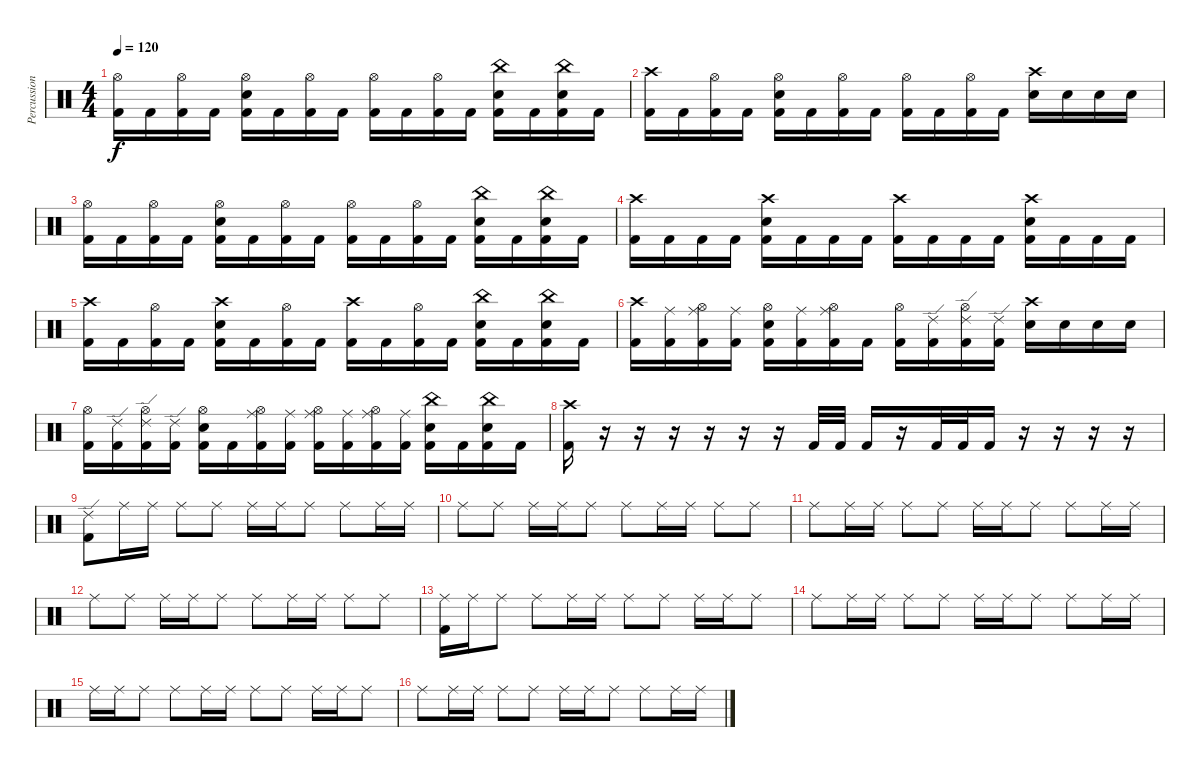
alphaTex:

\track ("Percussion" "Percussion") {instrument percussion}
\staff {score}
\articulation defaults
\ts (4 4)
\tempo 120
\clef neutral
\ks c
("Hi-Hat (open)" "Kick (hit) 2").16{dy f} "Kick (hit) 2".16 ("Hi-Hat (open)" "Kick (hit) 2").16 "Kick (hit) 2".16 ("Hi-Hat (open)" "Snare (hit) 2" "Kick (hit) 2").16 "Kick (hit) 2".16 ("Hi-Hat (open)" "Kick (hit) 2").16 "Kick (hit) 2".16 ("Hi-Hat (open)" "Kick (hit) 2").16 "Kick (hit) 2".16 ("Hi-Hat (open)" "Kick (hit) 2").16 "Kick (hit) 2".16 ("China (hit)" "Snare (hit) 2" "Kick (hit) 2").16 "Kick (hit) 2".16 ("China (hit)" "Snare (hit) 2" "Kick (hit) 2").16 "Kick (hit) 2".16 |
("Crash high (hit)" "Kick (hit) 2").16 "Kick (hit) 2".16 ("Hi-Hat (open)" "Kick (hit) 2").16 "Kick (hit) 2".16 ("Hi-Hat (open)" "Snare (hit) 2" "Kick (hit) 2").16 "Kick (hit) 2".16 ("Hi-Hat (open)" "Kick (hit) 2").16 "Kick (hit) 2".16 ("Hi-Hat (open)" "Kick (hit) 2").16 "Kick (hit) 2".16 ("Hi-Hat (open)" "Kick (hit) 2").16 "Kick (hit) 2".16 ("Crash high (hit)" "Snare (hit) 2").16 "Snare (hit) 2".16 "Snare (hit) 2".16 "Snare (hit) 2".16 |
("Hi-Hat (open)" "Kick (hit) 2").16 "Kick (hit) 2".16 ("Hi-Hat (open)" "Kick (hit) 2").16 "Kick (hit) 2".16 ("Hi-Hat (open)" "Snare (hit) 2" "Kick (hit) 2").16 "Kick (hit) 2".16 ("Hi-Hat (open)" "Kick (hit) 2").16 "Kick (hit) 2".16 ("Hi-Hat (open)" "Kick (hit) 2").16 "Kick (hit) 2".16 ("Hi-Hat (open)" "Kick (hit) 2").16 "Kick (hit) 2".16 ("China (hit)" "Snare (hit) 2" "Kick (hit) 2").16 "Kick (hit) 2".16 ("China (hit)" "Snare (hit) 2" "Kick (hit) 2").16 "Kick (hit) 2".16 |
("Crash high (hit)" "Kick (hit) 2").16 "Kick (hit) 2".16 "Kick (hit) 2".16 "Kick (hit) 2".16 ("Crash high (hit)" "Snare (hit) 2" "Kick (hit) 2").16 "Kick (hit) 2".16 "Kick (hit) 2".16 "Kick (hit) 2".16 ("Crash high (hit)" "Kick (hit) 2").16 "Kick (hit) 2".16 "Kick (hit) 2".16 "Kick (hit) 2".16 ("Crash high (hit)" "Snare (hit) 2" "Kick (hit) 2").16 "Kick (hit) 2".16 "Kick (hit) 2".16 "Kick (hit) 2".16 |
("Crash high (hit)" "Kick (hit) 2").16 "Kick (hit) 2".16 ("Hi-Hat (open)" "Kick (hit) 2").16 "Kick (hit) 2".16 ("Crash high (hit)" "Snare (hit) 2" "Kick (hit) 2").16 "Kick (hit) 2".16 ("Hi-Hat (open)" "Kick (hit) 2").16 "Kick (hit) 2".16 ("Crash high (hit)" "Kick (hit) 2").16 "Kick (hit) 2".16 ("Hi-Hat (open)" "Kick (hit) 2").16 "Kick (hit) 2".16 ("China (hit)" "Snare (hit) 2" "Kick (hit) 2").16 "Kick (hit) 2".16 ("China (hit)" "Snare (hit) 2" "Kick (hit) 2").16 "Kick (hit) 2".16 |
("Crash high (hit)" "Kick (hit) 2").16 ("Ride (middle)" "Kick (hit) 2").16 ("Hi-Hat (open)" "Ride (middle)" "Kick (hit) 2").16 ("Ride (middle)" "Kick (hit) 2").16 ("Hi-Hat (open)" "Snare (hit) 2" "Kick (hit) 2").16 ("Ride (middle)" "Kick (hit) 2").16 ("Hi-Hat (open)" "Ride (middle)" "Kick (hit) 2").16 "Kick (hit) 2".16 ("Hi-Hat (open)" "Kick (hit) 2").16 ("Ride (edge) 2" "Kick (hit) 2").16 ("Hi-Hat (open)" "Ride (edge) 2" "Kick (hit) 2").16 ("Ride (edge) 2" "Kick (hit) 2").16 ("Crash high (hit)" "Snare (hit) 2").16 "Snare (hit) 2".16 "Snare (hit) 2".16 "Snare (hit) 2".16 |
("Hi-Hat (open)" "Kick (hit) 2").16 ("Ride (edge) 2" "Kick (hit) 2").16 ("Hi-Hat (open)" "Ride (edge) 2" "Kick (hit) 2").16 ("Ride (edge) 2" "Kick (hit) 2").16 ("Hi-Hat (open)" "Snare (hit) 2" "Kick (hit) 2").16 "Kick (hit) 2".16 ("Hi-Hat (open)" "Ride (middle)" "Kick (hit) 2").16 ("Ride (middle)" "Kick (hit) 2").16 ("Hi-Hat (open)" "Ride (middle)" "Kick (hit) 2").16 ("Ride (middle)" "Kick (hit) 2").16 ("Hi-Hat (open)" "Ride (middle)" "Kick (hit) 2").16 ("Ride (middle)" "Kick (hit) 2").16 ("China (hit)" "Snare (hit) 2" "Kick (hit) 2").16 "Kick (hit) 2".16 ("China (hit)" "Snare (hit) 2" "Kick (hit) 2").16 "Kick (hit) 2".16 |
("Crash high (hit)" "Kick (hit) 2").16 r.16 r.16 r.16 r.16 r.16 r.16 "Kick (hit) 2".32 "Kick (hit) 2".32 "Kick (hit) 2".16 r.16 "Kick (hit) 2".32 "Kick (hit) 2".32 "Kick (hit) 2".16 r.16 r.16 r.16 r.16 |
("Ride (edge) 2" "Kick (hit) 2").8 "Ride (middle)".16 "Ride (middle)".16 "Ride (middle)".8 "Ride (middle)".8 "Ride (middle)".16 "Ride (middle)".16 "Ride (middle)".8 "Ride (middle)".8 "Ride (middle)".16 "Ride (middle)".16 |
"Ride (middle)".8 "Ride (middle)".8 "Ride (middle)".16 "Ride (middle)".16 "Ride (middle)".8 "Ride (middle)".8 "Ride (middle)".16 "Ride (middle)".16 "Ride (middle)".8 "Ride (middle)".8 |
"Ride (middle)".8 "Ride (middle)".16 "Ride (middle)".16 "Ride (middle)".8 "Ride (middle)".8 "Ride (middle)".16 "Ride (middle)".16 "Ride (middle)".8 "Ride (middle)".8 "Ride (middle)".16 "Ride (middle)".16 |
"Ride (middle)".8 "Ride (middle)".8 "Ride (middle)".16 "Ride (middle)".16 "Ride (middle)".8 "Ride (middle)".8 "Ride (middle)".16 "Ride (middle)".16 "Ride (middle)".8 "Ride (middle)".8 |
("Ride (middle)" "Kick (hit) 2").16 "Ride (middle)".16 "Ride (middle)".8 "Ride (middle)".8 "Ride (middle)".16 "Ride (middle)".16 "Ride (middle)".8 "Ride (middle)".8 "Ride (middle)".16 "Ride (middle)".16 "Ride (middle)".8 |
"Ride (middle)".8 "Ride (middle)".16 "Ride (middle)".16 "Ride (middle)".8 "Ride (middle)".8 "Ride (middle)".16 "Ride (middle)".16 "Ride (middle)".8 "Ride (middle)".8 "Ride (middle)".16 "Ride (middle)".16 |
"Ride (middle)".16 "Ride (middle)".16 "Ride (middle)".8 "Ride (middle)".8 "Ride (middle)".16 "Ride (middle)".16 "Ride (middle)".8 "Ride (middle)".8 "Ride (middle)".16 "Ride (middle)".16 "Ride (middle)".8 |
"Ride (middle)".8 "Ride (middle)".16 "Ride (middle)".16 "Ride (middle)".8 "Ride (middle)".8 "Ride (middle)".16 "Ride (middle)".16 "Ride (middle)".8 "Ride (middle)".8 "Ride (middle)".16 "Ride (middle)".16
